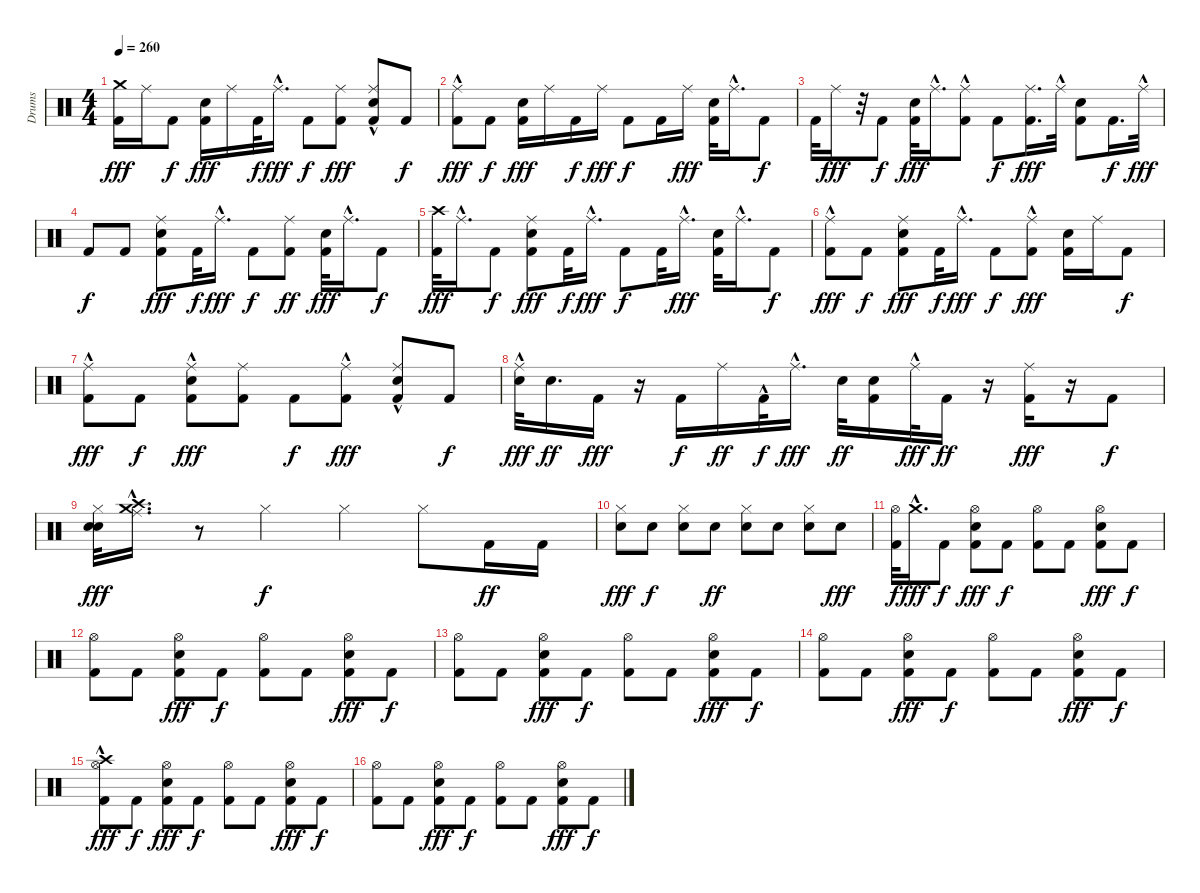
\track ("Drums" "Drums") {instrument percussion}
\staff {score}
\articulation defaults
\ts (4 4)
\tempo 260
\clef neutral
\ks c
("Crash medium (hit)" "Kick (hit) 2").16{dy fff} "Ride (middle)".16 "Kick (hit) 2".8{dy f} ("Snare (hit) 2" "Kick (hit) 2").16{dy fff} "Ride (middle)".16 "Kick (hit) 2".32{dy f} "Ride (middle)"{hac}.16{d dy fff} "Kick (hit) 2".8{dy f} ("Kick (hit) 2" "Ride (middle)").8{dy fff} ("Snare (hit) 2" "Kick (hit) 2" "Ride (middle)"{hac}).8 "Kick (hit) 2".8{dy f} |
("Kick (hit) 2" "Ride (middle)"{hac}).8{dy fff} "Kick (hit) 2".8{dy f} ("Snare (hit) 2" "Kick (hit) 2").16{dy fff} "Ride (middle)".16 "Kick (hit) 2".16{dy f} "Ride (middle)".16{dy fff} "Kick (hit) 2".8{dy f} "Kick (hit) 2".16 "Ride (middle)".16{dy fff} ("Snare (hit) 2" "Kick (hit) 2").32 "Ride (middle)"{hac}.16{d} "Kick (hit) 2".8{dy f} |
"Kick (hit) 2".32 "Ride (middle)".16{dy fff} r.32 "Kick (hit) 2".8{dy f} ("Snare (hit) 2" "Kick (hit) 2").32{dy fff} "Ride (middle)"{hac}.16{d} ("Kick (hit) 2" "Ride (middle)"{hac}).8 "Kick (hit) 2".8{dy f} ("Ride (middle)" "Kick (hit) 2").16{d dy fff} "Ride (middle)"{hac}.32 ("Snare (hit) 2" "Kick (hit) 2").8 "Kick (hit) 2".16{d dy f} "Ride (middle)"{hac}.32{dy fff} |
"Kick (hit) 2".8{dy f} "Kick (hit) 2".8 ("Snare (hit) 2" "Kick (hit) 2" "Ride (middle)").8{dy fff} "Kick (hit) 2".32{dy f} "Ride (middle)"{hac}.16{d dy fff} "Kick (hit) 2".8{dy f} ("Kick (hit) 2" "Ride (middle)").8{dy ff} ("Snare (hit) 2" "Kick (hit) 2").32{dy fff} "Ride (middle)"{hac}.16{d} "Kick (hit) 2".8{dy f} |
("Crash high (hit)" "Kick (hit) 2").32{dy fff} "Ride (middle)"{hac}.16{d} "Kick (hit) 2".8{dy f} ("Snare (hit) 2" "Kick (hit) 2" "Ride (middle)").8{dy fff} "Kick (hit) 2".32{dy f} "Ride (middle)"{hac}.16{d dy fff} "Kick (hit) 2".8{dy f} "Kick (hit) 2".32 "Ride (middle)"{hac}.16{d dy fff} ("Snare (hit) 2" "Kick (hit) 2").32 "Ride (middle)"{hac}.16{d} "Kick (hit) 2".8{dy f} |
("Ride (middle)"{hac} "Kick (hit) 2").8{dy fff} "Kick (hit) 2".8{dy f} ("Snare (hit) 2" "Kick (hit) 2" "Ride (middle)").8{dy fff} "Kick (hit) 2".32{dy f} "Ride (middle)"{hac}.16{d dy fff} "Kick (hit) 2".8{dy f} ("Ride (middle)"{hac} "Kick (hit) 2").8{dy fff} ("Snare (hit) 2" "Kick (hit) 2").16 "Ride (middle)".16 "Kick (hit) 2".8{dy f} |
("Kick (hit) 2" "Ride (middle)"{hac}).8{dy fff} "Kick (hit) 2".8{dy f} ("Snare (hit) 2" "Kick (hit) 2" "Ride (middle)"{hac}).8{dy fff} ("Kick (hit) 2" "Ride (middle)").8 "Kick (hit) 2".8{dy f} ("Kick (hit) 2" "Ride (middle)"{hac}).8{dy fff} ("Ride (middle)"{hac} "Snare (hit) 2" "Kick (hit) 2").8 "Kick (hit) 2".8{dy f} |
("Electric Snare (hit)" "Ride (middle)"{hac}).32{dy fff} "Snare (hit) 2".16{d dy ff} "Kick (hit) 2".16{dy fff} r.16 "Kick (hit) 2".16{dy f} "Ride (middle)".16{dy ff} "Kick (hit) 2"{hac}.32{dy f} "Ride (middle)"{hac}.16{d dy fff} "Electric Snare (hit)".32{dy ff} ("Snare (hit) 2" "Kick (hit) 2").16 "Ride (middle)"{hac}.32{dy fff} "Kick (hit) 2".16{dy ff} r.16 ("Kick (hit) 2" "Ride (middle)").16{dy fff} r.16 "Kick (hit) 2".8{dy f} |
("Electric Snare (hit)" "Snare (hit) 2" "Hi-Hat (closed)").32{dy fff} ("Ride (middle)" "Crash high (hit)"{hac} "Crash medium (hit)"{hac}).16{d} r.8 "Hi-Hat (closed)".4{dy f} "Hi-Hat (closed)".4 "Hi-Hat (closed)".8 "Kick (hit) 2".16{dy ff} "Kick (hit) 2".16 |
("Hi-Hat (closed)" "Snare (hit) 2").8{dy fff} "Snare (hit) 2".8{dy f} ("Hi-Hat (closed)" "Snare (hit) 2").8 "Snare (hit) 2".8{dy ff} ("Hi-Hat (closed)" "Snare (hit) 2").8 "Snare (hit) 2".8 ("Hi-Hat (closed)" "Snare (hit) 2").8 "Snare (hit) 2".8{dy fff} |
("Hi-Hat (open)" "Kick (hit) 2").32{dy f} "Crash medium (hit)"{hac}.16{d dy fff} "Kick (hit) 2".8{dy f} ("Hi-Hat (open)" "Snare (hit) 2" "Kick (hit) 2").8{dy fff} "Kick (hit) 2".8{dy f} ("Hi-Hat (open)" "Kick (hit) 2").8 "Kick (hit) 2".8 ("Hi-Hat (open)" "Snare (hit) 2" "Kick (hit) 2").8{dy fff} "Kick (hit) 2".8{dy f} |
("Hi-Hat (open)" "Kick (hit) 2").8 "Kick (hit) 2".8 ("Hi-Hat (open)" "Snare (hit) 2" "Kick (hit) 2").8{dy fff} "Kick (hit) 2".8{dy f} ("Hi-Hat (open)" "Kick (hit) 2").8 "Kick (hit) 2".8 ("Hi-Hat (open)" "Snare (hit) 2" "Kick (hit) 2").8{dy fff} "Kick (hit) 2".8{dy f} |
("Hi-Hat (open)" "Kick (hit) 2").8 "Kick (hit) 2".8 ("Hi-Hat (open)" "Snare (hit) 2" "Kick (hit) 2").8{dy fff} "Kick (hit) 2".8{dy f} ("Hi-Hat (open)" "Kick (hit) 2").8 "Kick (hit) 2".8 ("Hi-Hat (open)" "Snare (hit) 2" "Kick (hit) 2").8{dy fff} "Kick (hit) 2".8{dy f} |
("Hi-Hat (open)" "Kick (hit) 2").8 "Kick (hit) 2".8 ("Hi-Hat (open)" "Snare (hit) 2" "Kick (hit) 2").8{dy fff} "Kick (hit) 2".8{dy f} ("Hi-Hat (open)" "Kick (hit) 2").8 "Kick (hit) 2".8 ("Hi-Hat (open)" "Snare (hit) 2" "Kick (hit) 2").8{dy fff} "Kick (hit) 2".8{dy f} |
("Hi-Hat (open)" "Kick (hit) 2" "Crash high (hit)"{hac}).8{dy fff} "Kick (hit) 2".8{dy f} ("Hi-Hat (open)" "Snare (hit) 2" "Kick (hit) 2").8{dy fff} "Kick (hit) 2".8{dy f} ("Hi-Hat (open)" "Kick (hit) 2").8 "Kick (hit) 2".8 ("Hi-Hat (open)" "Snare (hit) 2" "Kick (hit) 2").8{dy fff} "Kick (hit) 2".8{dy f} |
("Hi-Hat (open)" "Kick (hit) 2").8 "Kick (hit) 2".8 ("Hi-Hat (open)" "Snare (hit) 2" "Kick (hit) 2").8{dy fff} "Kick (hit) 2".8{dy f} ("Hi-Hat (open)" "Kick (hit) 2").8 "Kick (hit) 2".8 ("Hi-Hat (open)" "Snare (hit) 2" "Kick (hit) 2").8{dy fff} "Kick (hit) 2".8{dy f}
